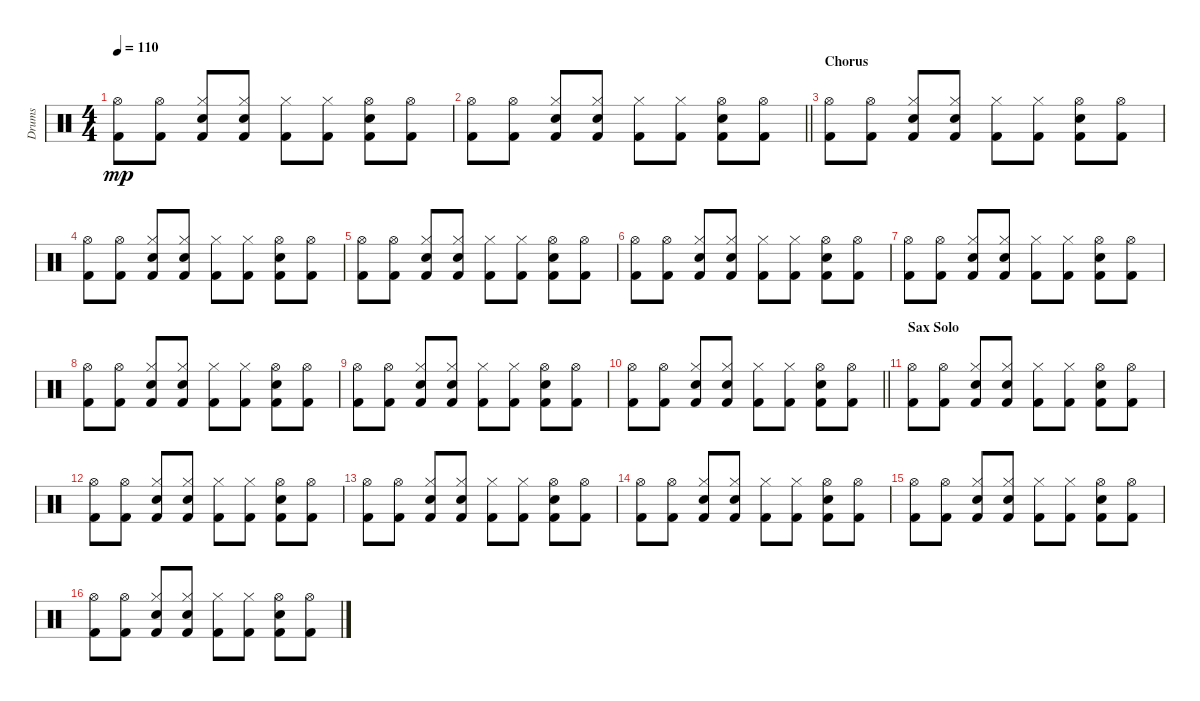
\track ("Drums" "Drums") {instrument percussion}
\staff {score}
\articulation defaults
\ts (4 4)
\tempo 110
\clef neutral
\ks c
("Hi-Hat (open)" "Kick (hit) 2").8{dy mp} ("Hi-Hat (open)" "Kick (hit) 2").8 ("Hi-Hat (closed)" "Electric Snare (hit)" "Kick (hit) 2").8 ("Hi-Hat (closed)" "Electric Snare (hit)" "Kick (hit) 2").8 ("Hi-Hat (closed)" "Kick (hit) 2").8 ("Hi-Hat (closed)" "Kick (hit) 2").8 ("Hi-Hat (open)" "Electric Snare (hit)" "Kick (hit) 2").8 ("Hi-Hat (open)" "Kick (hit) 2").8 |
\barLineRight lightlight
("Hi-Hat (open)" "Kick (hit) 2").8 ("Hi-Hat (open)" "Kick (hit) 2").8 ("Hi-Hat (closed)" "Electric Snare (hit)" "Kick (hit) 2").8 ("Hi-Hat (closed)" "Electric Snare (hit)" "Kick (hit) 2").8 ("Hi-Hat (closed)" "Kick (hit) 2").8 ("Hi-Hat (closed)" "Kick (hit) 2").8 ("Hi-Hat (open)" "Electric Snare (hit)" "Kick (hit) 2").8 ("Hi-Hat (open)" "Kick (hit) 2").8 |
\section ("" "Chorus")
("Hi-Hat (open)" "Kick (hit) 2").8 ("Hi-Hat (open)" "Kick (hit) 2").8 ("Hi-Hat (closed)" "Electric Snare (hit)" "Kick (hit) 2").8 ("Hi-Hat (closed)" "Electric Snare (hit)" "Kick (hit) 2").8 ("Hi-Hat (closed)" "Kick (hit) 2").8 ("Hi-Hat (closed)" "Kick (hit) 2").8 ("Hi-Hat (open)" "Electric Snare (hit)" "Kick (hit) 2").8 ("Hi-Hat (open)" "Kick (hit) 2").8 |
("Hi-Hat (open)" "Kick (hit) 2").8 ("Hi-Hat (open)" "Kick (hit) 2").8 ("Hi-Hat (closed)" "Electric Snare (hit)" "Kick (hit) 2").8 ("Hi-Hat (closed)" "Electric Snare (hit)" "Kick (hit) 2").8 ("Hi-Hat (closed)" "Kick (hit) 2").8 ("Hi-Hat (closed)" "Kick (hit) 2").8 ("Hi-Hat (open)" "Electric Snare (hit)" "Kick (hit) 2").8 ("Hi-Hat (open)" "Kick (hit) 2").8 |
("Hi-Hat (open)" "Kick (hit) 2").8 ("Hi-Hat (open)" "Kick (hit) 2").8 ("Hi-Hat (closed)" "Electric Snare (hit)" "Kick (hit) 2").8 ("Hi-Hat (closed)" "Electric Snare (hit)" "Kick (hit) 2").8 ("Hi-Hat (closed)" "Kick (hit) 2").8 ("Hi-Hat (closed)" "Kick (hit) 2").8 ("Hi-Hat (open)" "Electric Snare (hit)" "Kick (hit) 2").8 ("Hi-Hat (open)" "Kick (hit) 2").8 |
("Hi-Hat (open)" "Kick (hit) 2").8 ("Hi-Hat (open)" "Kick (hit) 2").8 ("Hi-Hat (closed)" "Electric Snare (hit)" "Kick (hit) 2").8 ("Hi-Hat (closed)" "Electric Snare (hit)" "Kick (hit) 2").8 ("Hi-Hat (closed)" "Kick (hit) 2").8 ("Hi-Hat (closed)" "Kick (hit) 2").8 ("Hi-Hat (open)" "Electric Snare (hit)" "Kick (hit) 2").8 ("Hi-Hat (open)" "Kick (hit) 2").8 |
("Hi-Hat (open)" "Kick (hit) 2").8 ("Hi-Hat (open)" "Kick (hit) 2").8 ("Hi-Hat (closed)" "Electric Snare (hit)" "Kick (hit) 2").8 ("Hi-Hat (closed)" "Electric Snare (hit)" "Kick (hit) 2").8 ("Hi-Hat (closed)" "Kick (hit) 2").8 ("Hi-Hat (closed)" "Kick (hit) 2").8 ("Hi-Hat (open)" "Electric Snare (hit)" "Kick (hit) 2").8 ("Hi-Hat (open)" "Kick (hit) 2").8 |
("Hi-Hat (open)" "Kick (hit) 2").8 ("Hi-Hat (open)" "Kick (hit) 2").8 ("Hi-Hat (closed)" "Electric Snare (hit)" "Kick (hit) 2").8 ("Hi-Hat (closed)" "Electric Snare (hit)" "Kick (hit) 2").8 ("Hi-Hat (closed)" "Kick (hit) 2").8 ("Hi-Hat (closed)" "Kick (hit) 2").8 ("Hi-Hat (open)" "Electric Snare (hit)" "Kick (hit) 2").8 ("Hi-Hat (open)" "Kick (hit) 2").8 |
("Hi-Hat (open)" "Kick (hit) 2").8 ("Hi-Hat (open)" "Kick (hit) 2").8 ("Hi-Hat (closed)" "Electric Snare (hit)" "Kick (hit) 2").8 ("Hi-Hat (closed)" "Electric Snare (hit)" "Kick (hit) 2").8 ("Hi-Hat (closed)" "Kick (hit) 2").8 ("Hi-Hat (closed)" "Kick (hit) 2").8 ("Hi-Hat (open)" "Electric Snare (hit)" "Kick (hit) 2").8 ("Hi-Hat (open)" "Kick (hit) 2").8 |
\barLineRight lightlight
("Hi-Hat (open)" "Kick (hit) 2").8 ("Hi-Hat (open)" "Kick (hit) 2").8 ("Hi-Hat (closed)" "Electric Snare (hit)" "Kick (hit) 2").8 ("Hi-Hat (closed)" "Electric Snare (hit)" "Kick (hit) 2").8 ("Hi-Hat (closed)" "Kick (hit) 2").8 ("Hi-Hat (closed)" "Kick (hit) 2").8 ("Hi-Hat (open)" "Electric Snare (hit)" "Kick (hit) 2").8 ("Hi-Hat (open)" "Kick (hit) 2").8 |
\section ("" "Sax Solo")
("Hi-Hat (open)" "Kick (hit) 2").8 ("Hi-Hat (open)" "Kick (hit) 2").8 ("Hi-Hat (closed)" "Electric Snare (hit)" "Kick (hit) 2").8 ("Hi-Hat (closed)" "Electric Snare (hit)" "Kick (hit) 2").8 ("Hi-Hat (closed)" "Kick (hit) 2").8 ("Hi-Hat (closed)" "Kick (hit) 2").8 ("Hi-Hat (open)" "Electric Snare (hit)" "Kick (hit) 2").8 ("Hi-Hat (open)" "Kick (hit) 2").8 |
("Hi-Hat (open)" "Kick (hit) 2").8 ("Hi-Hat (open)" "Kick (hit) 2").8 ("Hi-Hat (closed)" "Electric Snare (hit)" "Kick (hit) 2").8 ("Hi-Hat (closed)" "Electric Snare (hit)" "Kick (hit) 2").8 ("Hi-Hat (closed)" "Kick (hit) 2").8 ("Hi-Hat (closed)" "Kick (hit) 2").8 ("Hi-Hat (open)" "Electric Snare (hit)" "Kick (hit) 2").8 ("Hi-Hat (open)" "Kick (hit) 2").8 |
("Hi-Hat (open)" "Kick (hit) 2").8 ("Hi-Hat (open)" "Kick (hit) 2").8 ("Hi-Hat (closed)" "Electric Snare (hit)" "Kick (hit) 2").8 ("Hi-Hat (closed)" "Electric Snare (hit)" "Kick (hit) 2").8 ("Hi-Hat (closed)" "Kick (hit) 2").8 ("Hi-Hat (closed)" "Kick (hit) 2").8 ("Hi-Hat (open)" "Electric Snare (hit)" "Kick (hit) 2").8 ("Hi-Hat (open)" "Kick (hit) 2").8 |
("Hi-Hat (open)" "Kick (hit) 2").8 ("Hi-Hat (open)" "Kick (hit) 2").8 ("Hi-Hat (closed)" "Electric Snare (hit)" "Kick (hit) 2").8 ("Hi-Hat (closed)" "Electric Snare (hit)" "Kick (hit) 2").8 ("Hi-Hat (closed)" "Kick (hit) 2").8 ("Hi-Hat (closed)" "Kick (hit) 2").8 ("Hi-Hat (open)" "Electric Snare (hit)" "Kick (hit) 2").8 ("Hi-Hat (open)" "Kick (hit) 2").8 |
("Hi-Hat (open)" "Kick (hit) 2").8 ("Hi-Hat (open)" "Kick (hit) 2").8 ("Hi-Hat (closed)" "Electric Snare (hit)" "Kick (hit) 2").8 ("Hi-Hat (closed)" "Electric Snare (hit)" "Kick (hit) 2").8 ("Hi-Hat (closed)" "Kick (hit) 2").8 ("Hi-Hat (closed)" "Kick (hit) 2").8 ("Hi-Hat (open)" "Electric Snare (hit)" "Kick (hit) 2").8 ("Hi-Hat (open)" "Kick (hit) 2").8 |
("Hi-Hat (open)" "Kick (hit) 2").8 ("Hi-Hat (open)" "Kick (hit) 2").8 ("Hi-Hat (closed)" "Electric Snare (hit)" "Kick (hit) 2").8 ("Hi-Hat (closed)" "Electric Snare (hit)" "Kick (hit) 2").8 ("Hi-Hat (closed)" "Kick (hit) 2").8 ("Hi-Hat (closed)" "Kick (hit) 2").8 ("Hi-Hat (open)" "Electric Snare (hit)" "Kick (hit) 2").8 ("Hi-Hat (open)" "Kick (hit) 2").8
